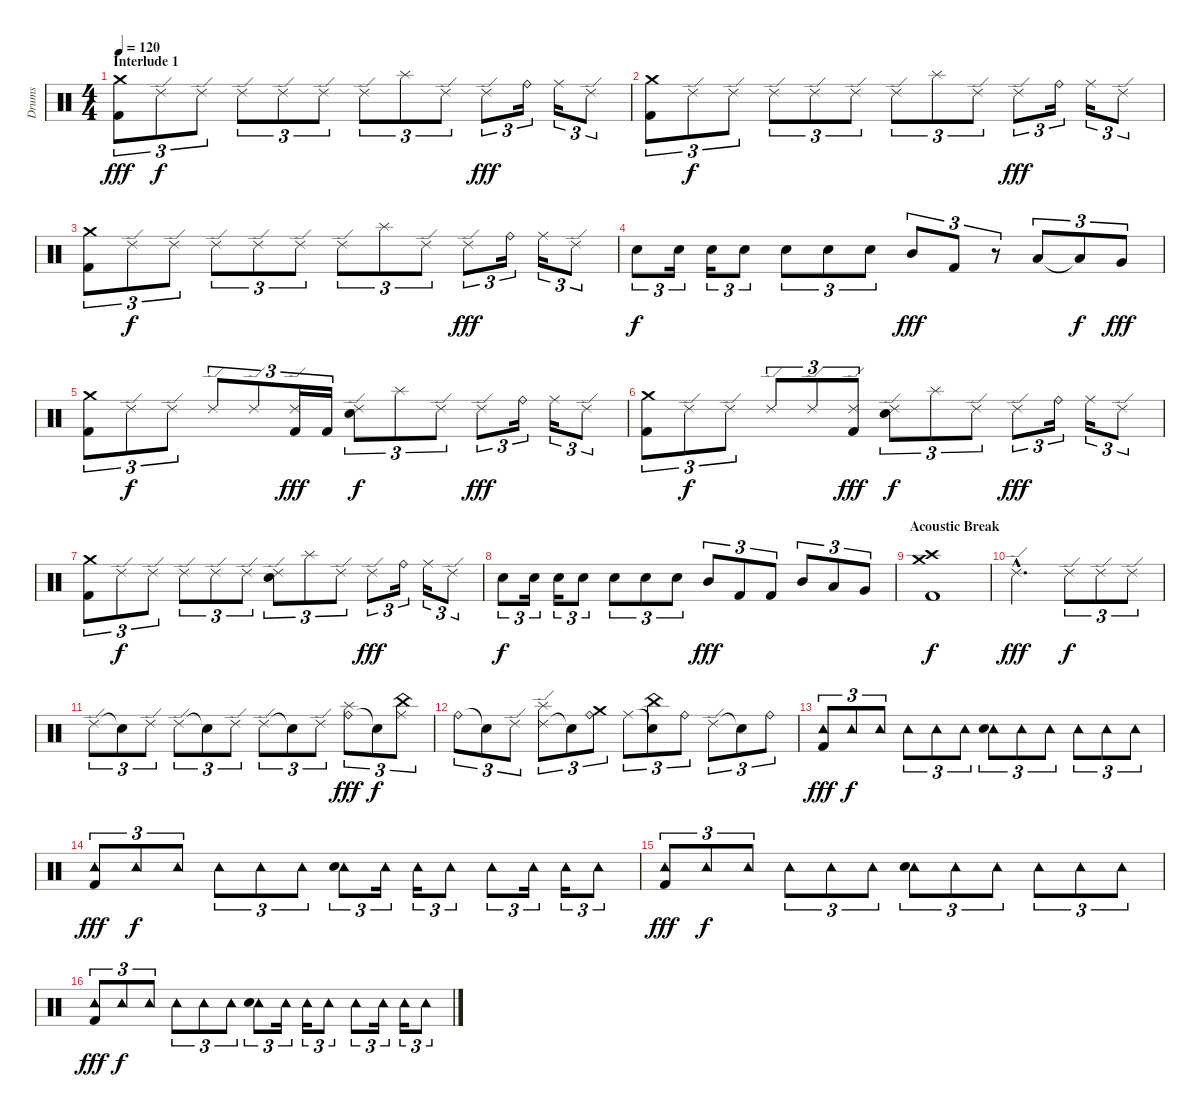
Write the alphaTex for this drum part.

\track ("Drums" "Drums") {instrument percussion}
\staff {score}
\articulation defaults
\ts (4 4)
\section ("" "Interlude 1")
\tempo 120
\clef neutral
\ks c
("Crash medium (hit)" "Kick (hit) 2").8{tu (3 2) dy fff volume 13} "Ride (edge) 2".8{tu (3 2) dy f} "Ride (edge) 2".8{tu (3 2)} "Ride (edge) 2".8{tu (3 2)} "Ride (edge) 2".8{tu (3 2)} "Ride (edge) 2".8{tu (3 2)} "Ride (edge) 2".8{tu (3 2)} "Splash (hit)".8{tu (3 2)} "Ride (edge) 2".8{tu (3 2)} "Ride (edge) 2".8{tu (3 2) dy fff} "Ride (bell)".16{tu (3 2)} "Ride (middle)".16{tu (3 2)} "Ride (edge) 2".8{tu (3 2)} |
("Crash medium (hit)" "Kick (hit) 2").8{tu (3 2)} "Ride (edge) 2".8{tu (3 2) dy f} "Ride (edge) 2".8{tu (3 2)} "Ride (edge) 2".8{tu (3 2)} "Ride (edge) 2".8{tu (3 2)} "Ride (edge) 2".8{tu (3 2)} "Ride (edge) 2".8{tu (3 2)} "Splash (hit)".8{tu (3 2)} "Ride (edge) 2".8{tu (3 2)} "Ride (edge) 2".8{tu (3 2) dy fff} "Ride (bell)".16{tu (3 2)} "Ride (middle)".16{tu (3 2)} "Ride (edge) 2".8{tu (3 2)} |
("Crash medium (hit)" "Kick (hit) 2").8{tu (3 2)} "Ride (edge) 2".8{tu (3 2) dy f} "Ride (edge) 2".8{tu (3 2)} "Ride (edge) 2".8{tu (3 2)} "Ride (edge) 2".8{tu (3 2)} "Ride (edge) 2".8{tu (3 2)} "Ride (edge) 2".8{tu (3 2)} "Splash (hit)".8{tu (3 2)} "Ride (edge) 2".8{tu (3 2)} "Ride (edge) 2".8{tu (3 2) dy fff} "Ride (bell)".16{tu (3 2)} "Ride (middle)".16{tu (3 2)} "Ride (edge) 2".8{tu (3 2)} |
"Snare (hit) 2".8{tu (3 2) dy f} "Snare (hit) 2".16{tu (3 2)} "Snare (hit) 2".16{tu (3 2)} "Snare (hit) 2".8{tu (3 2)} "Snare (hit) 2".8{tu (3 2)} "Snare (hit) 2".8{tu (3 2)} "Snare (hit) 2".8{tu (3 2)} "Mid Tom (hit)".8{tu (3 2) dy fff} "Kick (hit) 2".8{tu (3 2)} r.8{tu (3 2)} "Low Tom (hit)".8{tu (3 2)} "Low Tom (hit)"{t}.8{tu (3 2) dy f} "Very Low Tom (hit)".8{tu (3 2) dy fff} |
("Crash medium (hit)" "Kick (hit) 2").8{tu (3 2)} "Ride (edge) 2".8{tu (3 2) dy f} "Ride (edge) 2".8{tu (3 2)} "Ride (edge) 2".8{tu (3 2)} "Ride (edge) 2".8{tu (3 2)} ("Ride (edge) 2" "Kick (hit) 2").16{tu (3 2) dy fff} "Kick (hit) 2".16{tu (3 2)} ("Ride (edge) 2" "Snare (hit) 2").8{tu (3 2) dy f} "Splash (hit)".8{tu (3 2)} "Ride (edge) 2".8{tu (3 2)} "Ride (edge) 2".8{tu (3 2) dy fff} "Ride (bell)".16{tu (3 2)} "Ride (middle)".16{tu (3 2)} "Ride (edge) 2".8{tu (3 2)} |
("Crash medium (hit)" "Kick (hit) 2").8{tu (3 2)} "Ride (edge) 2".8{tu (3 2) dy f} "Ride (edge) 2".8{tu (3 2)} "Ride (edge) 2".8{tu (3 2)} "Ride (edge) 2".8{tu (3 2)} ("Ride (edge) 2" "Kick (hit) 2").8{tu (3 2) dy fff} ("Ride (edge) 2" "Snare (hit) 2").8{tu (3 2) dy f} "Splash (hit)".8{tu (3 2)} "Ride (edge) 2".8{tu (3 2)} "Ride (edge) 2".8{tu (3 2) dy fff} "Ride (bell)".16{tu (3 2)} "Ride (middle)".16{tu (3 2)} "Ride (edge) 2".8{tu (3 2)} |
("Crash medium (hit)" "Kick (hit) 2").8{tu (3 2)} "Ride (edge) 2".8{tu (3 2) dy f} "Ride (edge) 2".8{tu (3 2)} "Ride (edge) 2".8{tu (3 2)} "Ride (edge) 2".8{tu (3 2)} "Ride (edge) 2".8{tu (3 2)} ("Ride (edge) 2" "Snare (hit) 2").8{tu (3 2)} "Splash (hit)".8{tu (3 2)} "Ride (edge) 2".8{tu (3 2)} "Ride (edge) 2".8{tu (3 2) dy fff} "Ride (bell)".16{tu (3 2)} "Ride (middle)".16{tu (3 2)} "Ride (edge) 2".8{tu (3 2)} |
"Snare (hit) 2".8{tu (3 2) dy f} "Snare (hit) 2".16{tu (3 2)} "Snare (hit) 2".16{tu (3 2)} "Snare (hit) 2".8{tu (3 2)} "Snare (hit) 2".8{tu (3 2)} "Snare (hit) 2".8{tu (3 2)} "Snare (hit) 2".8{tu (3 2)} "Mid Tom (hit)".8{tu (3 2) dy fff} "Kick (hit) 2".8{tu (3 2)} "Kick (hit) 2".8{tu (3 2)} "Mid Tom (hit)".8{tu (3 2)} "Low Tom (hit)".8{tu (3 2)} "Very Low Tom (hit)".8{tu (3 2)} |
\section ("" "Acoustic Break")
("Crash medium (hit)" "Crash high (hit)" "Kick (hit) 2").1{dy f} |
"Ride (edge) 2"{hac}.2{d dy fff} "Ride (edge) 2".8{tu (3 2) dy f} "Ride (edge) 2".8{tu (3 2)} "Ride (edge) 2".8{tu (3 2)} |
"Ride (edge) 2".8{tu (3 2)} "Snare (hit)"{t}.8{tu (3 2)} "Ride (edge) 2".8{tu (3 2)} "Ride (edge) 2".8{tu (3 2)} "Snare (hit)"{t}.8{tu (3 2)} "Ride (edge) 2".8{tu (3 2)} "Ride (edge) 2".8{tu (3 2)} "Snare (hit)"{t}.8{tu (3 2)} "Ride (edge) 2".8{tu (3 2)} ("Ride (bell)" "Splash (hit)").8{tu (3 2) dy fff} "Snare (hit)"{t}.8{tu (3 2) dy f} ("Ride (middle)" "China (hit)").8{tu (3 2)} |
"Ride (bell)".8{tu (3 2)} "Snare (hit)"{t}.8{tu (3 2)} "Ride (edge) 2".8{tu (3 2)} ("Ride (edge) 2" "Splash (hit)").8{tu (3 2)} "Snare (hit)"{t}.8{tu (3 2)} ("Ride (bell)" "Crash medium (hit)").8{tu (3 2)} "Ride (middle)".8{tu (3 2)} ("Snare (hit)"{t} "China (hit)").8{tu (3 2)} "Ride (bell)".8{tu (3 2)} "Ride (edge) 2".8{tu (3 2)} "Snare (hit)"{t}.8{tu (3 2)} "Ride (bell)".8{tu (3 2)} |
("Tambourine (hit)" "Kick (hit) 2").8{tu (3 2) dy fff} "Tambourine (hit)".8{tu (3 2) dy f} "Tambourine (hit)".8{tu (3 2)} "Tambourine (hit)".8{tu (3 2)} "Tambourine (hit)".8{tu (3 2)} "Tambourine (hit)".8{tu (3 2)} ("Tambourine (hit)" "Snare (hit) 2").8{tu (3 2)} "Tambourine (hit)".8{tu (3 2)} "Tambourine (hit)".8{tu (3 2)} "Tambourine (hit)".8{tu (3 2)} "Tambourine (hit)".8{tu (3 2)} "Tambourine (hit)".8{tu (3 2)} |
("Tambourine (hit)" "Kick (hit) 2").8{tu (3 2) dy fff} "Tambourine (hit)".8{tu (3 2) dy f} "Tambourine (hit)".8{tu (3 2)} "Tambourine (hit)".8{tu (3 2)} "Tambourine (hit)".8{tu (3 2)} "Tambourine (hit)".8{tu (3 2)} ("Tambourine (hit)" "Snare (hit) 2").8{tu (3 2)} "Tambourine (hit)".16{tu (3 2)} "Tambourine (hit)".16{tu (3 2)} "Tambourine (hit)".8{tu (3 2)} "Tambourine (hit)".8{tu (3 2)} "Tambourine (hit)".16{tu (3 2)} "Tambourine (hit)".16{tu (3 2)} "Tambourine (hit)".8{tu (3 2)} |
("Tambourine (hit)" "Kick (hit) 2").8{tu (3 2) dy fff} "Tambourine (hit)".8{tu (3 2) dy f} "Tambourine (hit)".8{tu (3 2)} "Tambourine (hit)".8{tu (3 2)} "Tambourine (hit)".8{tu (3 2)} "Tambourine (hit)".8{tu (3 2)} ("Tambourine (hit)" "Snare (hit) 2").8{tu (3 2)} "Tambourine (hit)".8{tu (3 2)} "Tambourine (hit)".8{tu (3 2)} "Tambourine (hit)".8{tu (3 2)} "Tambourine (hit)".8{tu (3 2)} "Tambourine (hit)".8{tu (3 2)} |
("Tambourine (hit)" "Kick (hit) 2").8{tu (3 2) dy fff} "Tambourine (hit)".8{tu (3 2) dy f} "Tambourine (hit)".8{tu (3 2)} "Tambourine (hit)".8{tu (3 2)} "Tambourine (hit)".8{tu (3 2)} "Tambourine (hit)".8{tu (3 2)} ("Tambourine (hit)" "Snare (hit) 2").8{tu (3 2)} "Tambourine (hit)".16{tu (3 2)} "Tambourine (hit)".16{tu (3 2)} "Tambourine (hit)".8{tu (3 2)} "Tambourine (hit)".8{tu (3 2)} "Tambourine (hit)".16{tu (3 2)} "Tambourine (hit)".16{tu (3 2)} "Tambourine (hit)".8{tu (3 2)}
